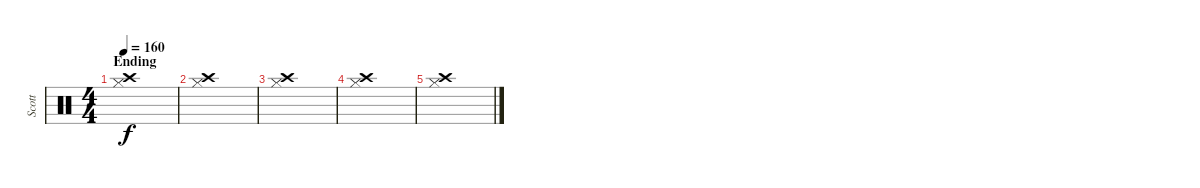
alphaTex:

\track ("Scott" "Scott") {instrument percussion}
\staff {score}
\articulation defaults
\ts (4 4)
\section ("" "Ending")
\tempo 160
\clef neutral
\ks c
("Crash high (hit)" "Hi-Hat (closed)").1{dy f} |
("Crash high (hit)" "Hi-Hat (closed)").1 |
("Crash high (hit)" "Hi-Hat (closed)").1 |
("Crash high (hit)" "Hi-Hat (closed)").1 |
("Crash high (hit)" "Hi-Hat (closed)").1
